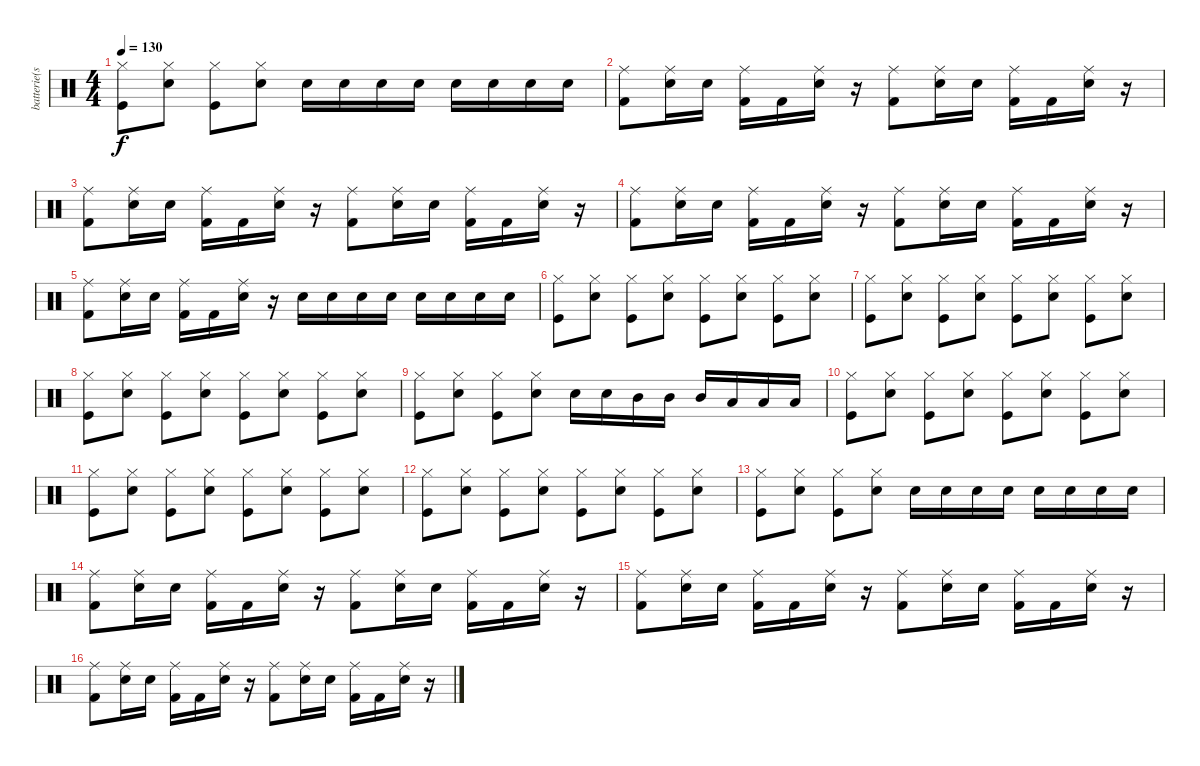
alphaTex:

\track ("batterie(steve)" "batterie(s") {instrument percussion}
\staff {score}
\articulation defaults
\ts (4 4)
\tempo 130
\clef neutral
\ks c
("Hi-Hat (closed)" "Kick (hit)").8{dy f} ("Hi-Hat (closed)" "Snare (hit) 2").8 ("Hi-Hat (closed)" "Kick (hit)").8 ("Hi-Hat (closed)" "Snare (hit) 2").8 "Snare (hit) 2".16 "Snare (hit) 2".16 "Snare (hit) 2".16 "Snare (hit) 2".16 "Snare (hit) 2".16 "Snare (hit) 2".16 "Snare (hit) 2".16 "Snare (hit) 2".16 |
("Ride (middle)" "Kick (hit) 2").8 ("Ride (middle)" "Snare (hit) 2").16 "Snare (hit) 2".16 ("Ride (middle)" "Kick (hit) 2").16 "Kick (hit) 2".16 ("Ride (middle)" "Snare (hit) 2").16 r.16 ("Ride (middle)" "Kick (hit) 2").8 ("Ride (middle)" "Snare (hit) 2").16 "Snare (hit) 2".16 ("Ride (middle)" "Kick (hit) 2").16 "Kick (hit) 2".16 ("Ride (middle)" "Snare (hit) 2").16 r.16 |
("Ride (middle)" "Kick (hit) 2").8 ("Ride (middle)" "Snare (hit) 2").16 "Snare (hit) 2".16 ("Ride (middle)" "Kick (hit) 2").16 "Kick (hit) 2".16 ("Ride (middle)" "Snare (hit) 2").16 r.16 ("Ride (middle)" "Kick (hit) 2").8 ("Ride (middle)" "Snare (hit) 2").16 "Snare (hit) 2".16 ("Ride (middle)" "Kick (hit) 2").16 "Kick (hit) 2".16 ("Ride (middle)" "Snare (hit) 2").16 r.16 |
("Ride (middle)" "Kick (hit) 2").8 ("Ride (middle)" "Snare (hit) 2").16 "Snare (hit) 2".16 ("Ride (middle)" "Kick (hit) 2").16 "Kick (hit) 2".16 ("Ride (middle)" "Snare (hit) 2").16 r.16 ("Ride (middle)" "Kick (hit) 2").8 ("Ride (middle)" "Snare (hit) 2").16 "Snare (hit) 2".16 ("Ride (middle)" "Kick (hit) 2").16 "Kick (hit) 2".16 ("Ride (middle)" "Snare (hit) 2").16 r.16 |
("Ride (middle)" "Kick (hit) 2").8 ("Ride (middle)" "Snare (hit) 2").16 "Snare (hit) 2".16 ("Ride (middle)" "Kick (hit) 2").16 "Kick (hit) 2".16 ("Ride (middle)" "Snare (hit) 2").16 r.16 "Snare (hit) 2".16 "Snare (hit) 2".16 "Snare (hit) 2".16 "Snare (hit) 2".16 "Snare (hit) 2".16 "Snare (hit) 2".16 "Snare (hit) 2".16 "Snare (hit) 2".16 |
("Hi-Hat (closed)" "Kick (hit)").8 ("Hi-Hat (closed)" "Snare (hit) 2").8 ("Hi-Hat (closed)" "Kick (hit)").8 ("Hi-Hat (closed)" "Snare (hit) 2").8 ("Hi-Hat (closed)" "Kick (hit)").8 ("Hi-Hat (closed)" "Snare (hit) 2").8 ("Hi-Hat (closed)" "Kick (hit)").8 ("Hi-Hat (closed)" "Snare (hit) 2").8 |
("Hi-Hat (closed)" "Kick (hit)").8 ("Hi-Hat (closed)" "Snare (hit) 2").8 ("Hi-Hat (closed)" "Kick (hit)").8 ("Hi-Hat (closed)" "Snare (hit) 2").8 ("Hi-Hat (closed)" "Kick (hit)").8 ("Hi-Hat (closed)" "Snare (hit) 2").8 ("Hi-Hat (closed)" "Kick (hit)").8 ("Hi-Hat (closed)" "Snare (hit) 2").8 |
("Hi-Hat (closed)" "Kick (hit)").8 ("Hi-Hat (closed)" "Snare (hit) 2").8 ("Hi-Hat (closed)" "Kick (hit)").8 ("Hi-Hat (closed)" "Snare (hit) 2").8 ("Hi-Hat (closed)" "Kick (hit)").8 ("Hi-Hat (closed)" "Snare (hit) 2").8 ("Hi-Hat (closed)" "Kick (hit)").8 ("Hi-Hat (closed)" "Snare (hit) 2").8 |
("Hi-Hat (closed)" "Kick (hit)").8 ("Hi-Hat (closed)" "Snare (hit) 2").8 ("Hi-Hat (closed)" "Kick (hit)").8 ("Hi-Hat (closed)" "Snare (hit) 2").8 "Snare (hit) 2".16 "Snare (hit) 2".16 "Mid Tom (hit)".16 "Mid Tom (hit)".16 "Mid Tom (hit)".16 "Low Tom (hit)".16 "Low Tom (hit)".16 "Low Tom (hit)".16 |
("Hi-Hat (closed)" "Kick (hit)").8 ("Hi-Hat (closed)" "Snare (hit) 2").8 ("Hi-Hat (closed)" "Kick (hit)").8 ("Hi-Hat (closed)" "Snare (hit) 2").8 ("Hi-Hat (closed)" "Kick (hit)").8 ("Hi-Hat (closed)" "Snare (hit) 2").8 ("Hi-Hat (closed)" "Kick (hit)").8 ("Hi-Hat (closed)" "Snare (hit) 2").8 |
("Hi-Hat (closed)" "Kick (hit)").8 ("Hi-Hat (closed)" "Snare (hit) 2").8 ("Hi-Hat (closed)" "Kick (hit)").8 ("Hi-Hat (closed)" "Snare (hit) 2").8 ("Hi-Hat (closed)" "Kick (hit)").8 ("Hi-Hat (closed)" "Snare (hit) 2").8 ("Hi-Hat (closed)" "Kick (hit)").8 ("Hi-Hat (closed)" "Snare (hit) 2").8 |
("Hi-Hat (closed)" "Kick (hit)").8 ("Hi-Hat (closed)" "Snare (hit) 2").8 ("Hi-Hat (closed)" "Kick (hit)").8 ("Hi-Hat (closed)" "Snare (hit) 2").8 ("Hi-Hat (closed)" "Kick (hit)").8 ("Hi-Hat (closed)" "Snare (hit) 2").8 ("Hi-Hat (closed)" "Kick (hit)").8 ("Hi-Hat (closed)" "Snare (hit) 2").8 |
("Hi-Hat (closed)" "Kick (hit)").8 ("Hi-Hat (closed)" "Snare (hit) 2").8 ("Hi-Hat (closed)" "Kick (hit)").8 ("Hi-Hat (closed)" "Snare (hit) 2").8 "Snare (hit) 2".16 "Snare (hit) 2".16 "Snare (hit) 2".16 "Snare (hit) 2".16 "Snare (hit) 2".16 "Snare (hit) 2".16 "Snare (hit) 2".16 "Snare (hit) 2".16 |
("Ride (middle)" "Kick (hit) 2").8 ("Ride (middle)" "Snare (hit) 2").16 "Snare (hit) 2".16 ("Ride (middle)" "Kick (hit) 2").16 "Kick (hit) 2".16 ("Ride (middle)" "Snare (hit) 2").16 r.16 ("Ride (middle)" "Kick (hit) 2").8 ("Ride (middle)" "Snare (hit) 2").16 "Snare (hit) 2".16 ("Ride (middle)" "Kick (hit) 2").16 "Kick (hit) 2".16 ("Ride (middle)" "Snare (hit) 2").16 r.16 |
("Ride (middle)" "Kick (hit) 2").8 ("Ride (middle)" "Snare (hit) 2").16 "Snare (hit) 2".16 ("Ride (middle)" "Kick (hit) 2").16 "Kick (hit) 2".16 ("Ride (middle)" "Snare (hit) 2").16 r.16 ("Ride (middle)" "Kick (hit) 2").8 ("Ride (middle)" "Snare (hit) 2").16 "Snare (hit) 2".16 ("Ride (middle)" "Kick (hit) 2").16 "Kick (hit) 2".16 ("Ride (middle)" "Snare (hit) 2").16 r.16 |
("Ride (middle)" "Kick (hit) 2").8 ("Ride (middle)" "Snare (hit) 2").16 "Snare (hit) 2".16 ("Ride (middle)" "Kick (hit) 2").16 "Kick (hit) 2".16 ("Ride (middle)" "Snare (hit) 2").16 r.16 ("Ride (middle)" "Kick (hit) 2").8 ("Ride (middle)" "Snare (hit) 2").16 "Snare (hit) 2".16 ("Ride (middle)" "Kick (hit) 2").16 "Kick (hit) 2".16 ("Ride (middle)" "Snare (hit) 2").16 r.16
